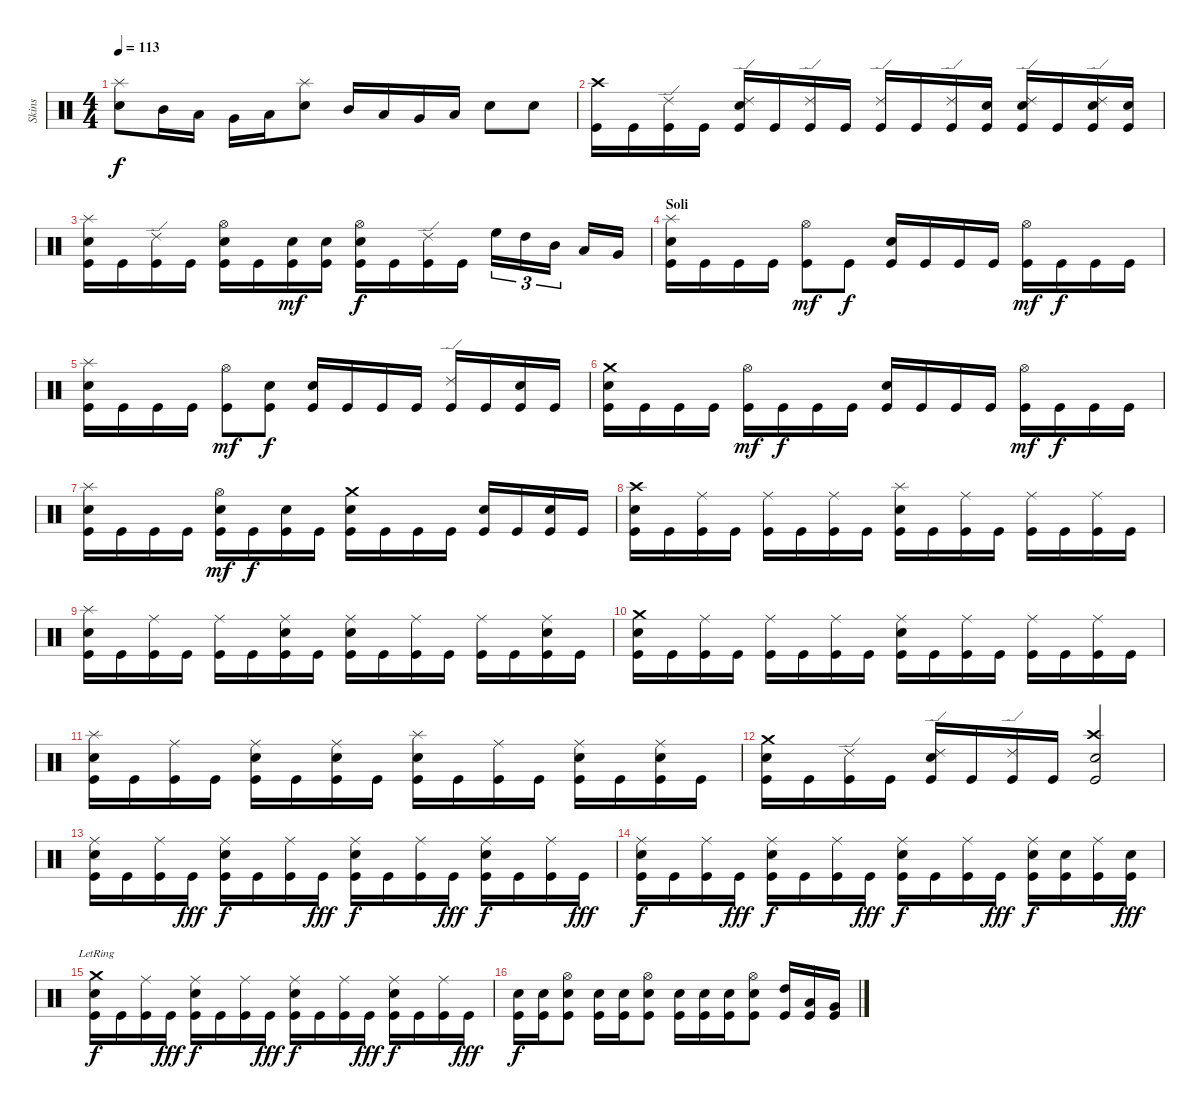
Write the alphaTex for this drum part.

\track ("Skins" "Skins") {instrument percussion}
\staff {score}
\articulation defaults
\ts (4 4)
\tempo 113
\clef neutral
\ks c
("Splash (hit)" "Snare (hit) 2").8{dy f} "Mid Tom (hit)".16 "Low Tom (hit)".16 "Very Low Tom (hit)".16 "Low Floor Tom (hit)".16 ("Splash (hit)" "Snare (hit) 2").8 "Mid Tom (hit)".16 "Low Tom (hit)".16 "Very Low Tom (hit)".16 "Low Floor Tom (hit)".16 "Electric Snare (hit)".8 "Electric Snare (hit)".8 |
("Crash high (hit)" "Kick (hit)").16 "Kick (hit)".16 ("Ride (edge) 2" "Kick (hit)").16 "Kick (hit)".16 ("Ride (edge) 2" "Electric Snare (hit)" "Kick (hit)").16 "Kick (hit)".16 ("Ride (edge) 2" "Kick (hit)").16 "Kick (hit)".16 ("Ride (edge) 2" "Kick (hit)").16 "Kick (hit)".16 ("Ride (edge) 2" "Kick (hit)").16 ("Snare (hit) 2" "Kick (hit)").16 ("Ride (edge) 2" "Electric Snare (hit)" "Kick (hit)").16 "Kick (hit)".16 ("Ride (edge) 2" "Snare (hit) 2" "Kick (hit)").16 ("Snare (hit) 2" "Kick (hit)").16 |
("Splash (hit)" "Electric Snare (hit)" "Kick (hit)").16 "Kick (hit)".16 ("Ride (edge) 2" "Kick (hit)").16 "Kick (hit)".16 ("Hi-Hat (open)" "Electric Snare (hit)" "Kick (hit)").16 "Kick (hit)".16 ("Snare (hit) 2" "Kick (hit)").16{dy mf} ("Snare (hit) 2" "Kick (hit)").16 ("Hi-Hat (open)" "Electric Snare (hit)" "Kick (hit)").16{dy f} "Kick (hit)".16 ("Ride (edge) 2" "Kick (hit)").16 "Kick (hit)".16 "High Floor Tom (hit)".16{tu (3 2)} "High Tom (hit)".16{tu (3 2)} "Mid Tom (hit)".16{tu (3 2)} "Low Tom (hit)".16 "Very Low Tom (hit)".16 |
\section ("" "Soli")
("Splash (hit)" "Electric Snare (hit)" "Kick (hit)").16{volume 14 balance 8} "Kick (hit)".16 "Kick (hit)".16 "Kick (hit)".16 ("Hi-Hat (open)" "Kick (hit)").8{dy mf} "Kick (hit)".8{dy f} ("Electric Snare (hit)" "Kick (hit)").16 "Kick (hit)".16 "Kick (hit)".16 "Kick (hit)".16 ("Hi-Hat (open)" "Kick (hit)").16{dy mf} "Kick (hit)".16{dy f} "Kick (hit)".16 "Kick (hit)".16 |
("Splash (hit)" "Electric Snare (hit)" "Kick (hit)").16 "Kick (hit)".16 "Kick (hit)".16 "Kick (hit)".16 ("Hi-Hat (open)" "Kick (hit)").8{dy mf} ("Snare (hit) 2" "Kick (hit)").8{dy f} ("Electric Snare (hit)" "Kick (hit)").16 "Kick (hit)".16 "Kick (hit)".16 "Kick (hit)".16 ("Ride (edge) 2" "Kick (hit)").16 "Kick (hit)".16 ("Snare (hit) 2" "Kick (hit)").16 "Kick (hit)".16 |
("Crash medium (hit)" "Electric Snare (hit)" "Kick (hit)").16 "Kick (hit)".16 "Kick (hit)".16 "Kick (hit)".16 ("Hi-Hat (open)" "Kick (hit)").16{dy mf} "Kick (hit)".16{dy f} "Kick (hit)".16 "Kick (hit)".16 ("Electric Snare (hit)" "Kick (hit)").16 "Kick (hit)".16 "Kick (hit)".16 "Kick (hit)".16 ("Hi-Hat (open)" "Kick (hit)").16{dy mf} "Kick (hit)".16{dy f} "Kick (hit)".16 "Kick (hit)".16 |
("Splash (hit)" "Electric Snare (hit)" "Kick (hit)").16 "Kick (hit)".16 "Kick (hit)".16 "Kick (hit)".16 ("Hi-Hat (open)" "Snare (hit) 2" "Kick (hit)").16{dy mf} "Kick (hit)".16{dy f} ("Snare (hit) 2" "Kick (hit)").16 "Kick (hit)".16 ("Crash medium (hit)" "Electric Snare (hit)" "Kick (hit)").16 "Kick (hit)".16 "Kick (hit)".16 "Kick (hit)".16 ("Snare (hit) 2" "Kick (hit)").16 "Kick (hit)".16 ("Snare (hit) 2" "Kick (hit)").16 "Kick (hit)".16 |
("Crash high (hit)" "Electric Snare (hit)" "Kick (hit)").16 "Kick (hit)".16 ("Ride (middle)" "Kick (hit)").16 "Kick (hit)".16 ("Ride (middle)" "Kick (hit)").16 "Kick (hit)".16 ("Ride (middle)" "Kick (hit)").16 "Kick (hit)".16 ("Splash (hit)" "Electric Snare (hit)" "Kick (hit)").16 "Kick (hit)".16 ("Ride (middle)" "Kick (hit)").16 "Kick (hit)".16 ("Ride (middle)" "Kick (hit)").16 "Kick (hit)".16 ("Ride (middle)" "Kick (hit)").16 "Kick (hit)".16 |
("Splash (hit)" "Electric Snare (hit)" "Kick (hit)").16 "Kick (hit)".16 ("Ride (middle)" "Kick (hit)").16 "Kick (hit)".16 ("Ride (middle)" "Kick (hit)").16 "Kick (hit)".16 ("Ride (middle)" "Snare (hit) 2" "Kick (hit)").16 "Kick (hit)".16 ("Ride (middle)" "Electric Snare (hit)" "Kick (hit)").16 "Kick (hit)".16 ("Ride (middle)" "Kick (hit)").16 "Kick (hit)".16 ("Ride (middle)" "Kick (hit)").16 "Kick (hit)".16 ("Ride (middle)" "Snare (hit) 2" "Kick (hit)").16 "Kick (hit)".16 |
("Crash medium (hit)" "Electric Snare (hit)" "Kick (hit)").16 "Kick (hit)".16 ("Ride (middle)" "Kick (hit)").16 "Kick (hit)".16 ("Ride (middle)" "Kick (hit)").16 "Kick (hit)".16 ("Ride (middle)" "Kick (hit)").16 "Kick (hit)".16 ("Ride (middle)" "Electric Snare (hit)" "Kick (hit)").16 "Kick (hit)".16 ("Ride (middle)" "Kick (hit)").16 "Kick (hit)".16 ("Ride (middle)" "Kick (hit)").16 "Kick (hit)".16 ("Ride (middle)" "Kick (hit)").16 "Kick (hit)".16 |
("Splash (hit)" "Electric Snare (hit)" "Kick (hit)").16 "Kick (hit)".16 ("Ride (middle)" "Kick (hit)").16 "Kick (hit)".16 ("Ride (middle)" "Snare (hit) 2" "Kick (hit)").16 "Kick (hit)".16 ("Ride (middle)" "Snare (hit) 2" "Kick (hit)").16 "Kick (hit)".16 ("Splash (hit)" "Electric Snare (hit)" "Kick (hit)").16 "Kick (hit)".16 ("Ride (middle)" "Kick (hit)").16 "Kick (hit)".16 ("Ride (middle)" "Snare (hit) 2" "Kick (hit)").16 "Kick (hit)".16 ("Ride (middle)" "Snare (hit) 2" "Kick (hit)").16 "Kick (hit)".16 |
("Crash medium (hit)" "Electric Snare (hit)" "Kick (hit)").16 "Kick (hit)".16 ("Ride (edge) 2" "Kick (hit)").16 "Kick (hit)".16 ("Ride (edge) 2" "Snare (hit) 2" "Kick (hit)").16 "Kick (hit)".16 ("Ride (edge) 2" "Kick (hit)").16 "Kick (hit)".16 ("Crash high (hit)" "Electric Snare (hit)" "Kick (hit)").2 |
("Ride (middle)" "Snare (hit) 2" "Kick (hit)").16 "Kick (hit)".16 ("Ride (middle)" "Kick (hit)").16 "Kick (hit)".16{dy fff} ("Ride (middle)" "Snare (hit) 2" "Kick (hit)").16{dy f} "Kick (hit)".16 ("Ride (middle)" "Kick (hit)").16 "Kick (hit)".16{dy fff} ("Ride (middle)" "Snare (hit) 2" "Kick (hit)").16{dy f} "Kick (hit)".16 ("Ride (middle)" "Kick (hit)").16 "Kick (hit)".16{dy fff} ("Ride (middle)" "Snare (hit) 2" "Kick (hit)").16{dy f} "Kick (hit)".16 ("Ride (middle)" "Kick (hit)").16 "Kick (hit)".16{dy fff} |
("Ride (middle)" "Snare (hit) 2" "Kick (hit)").16{dy f} "Kick (hit)".16 ("Ride (middle)" "Kick (hit)").16 "Kick (hit)".16{dy fff} ("Ride (middle)" "Snare (hit) 2" "Kick (hit)").16{dy f} "Kick (hit)".16 ("Ride (middle)" "Kick (hit)").16 "Kick (hit)".16{dy fff} ("Ride (middle)" "Snare (hit) 2" "Kick (hit)").16{dy f} "Kick (hit)".16 ("Ride (middle)" "Kick (hit)").16 "Kick (hit)".16{dy fff} ("Ride (middle)" "Snare (hit) 2" "Kick (hit)").16{dy f} ("Snare (hit) 2" "Kick (hit)").16 ("Ride (middle)" "Kick (hit)").16 ("Snare (hit) 2" "Kick (hit)").16{dy fff} |
("Snare (hit) 2" "Crash medium (hit)"{lr} "Kick (hit)").16{dy f} "Kick (hit)".16 ("Ride (middle)" "Kick (hit)").16 "Kick (hit)".16{dy fff} ("Ride (middle)" "Snare (hit) 2" "Kick (hit)").16{dy f} "Kick (hit)".16 ("Ride (middle)" "Kick (hit)").16 "Kick (hit)".16{dy fff} ("Ride (middle)" "Snare (hit) 2" "Kick (hit)").16{dy f} "Kick (hit)".16 ("Ride (middle)" "Kick (hit)").16 "Kick (hit)".16{dy fff} ("Ride (middle)" "Snare (hit) 2" "Kick (hit)").16{dy f} "Kick (hit)".16 ("Ride (middle)" "Kick (hit)").16 "Kick (hit)".16{dy fff} |
("Snare (hit) 2" "Kick (hit)").16{dy f} ("Snare (hit) 2" "Kick (hit)").16 ("Hi-Hat (open)" "Electric Snare (hit)" "Kick (hit)").8 ("Snare (hit) 2" "Kick (hit)").16 ("Snare (hit) 2" "Kick (hit)").16 ("Hi-Hat (open)" "Electric Snare (hit)" "Kick (hit)").8 ("Snare (hit) 2" "Kick (hit)").16 ("Snare (hit) 2" "Kick (hit)").16 ("Snare (hit) 2" "Kick (hit)").16 ("Hi-Hat (open)" "Electric Snare (hit)" "Kick (hit)").8 ("High Tom (hit)" "Kick (hit)").16 ("Low Tom (hit)" "Kick (hit)").16 ("Very Low Tom (hit)" "Kick (hit)").16
